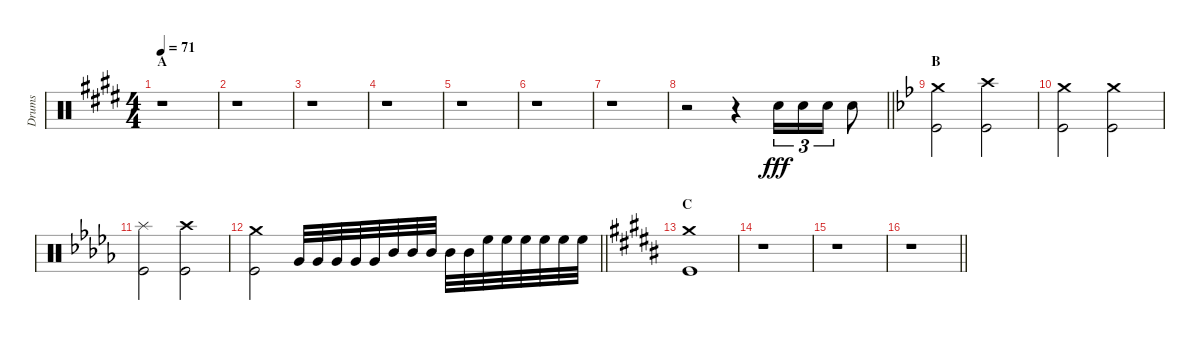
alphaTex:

\track ("Drums" "Drums") {instrument percussion}
\staff {score}
\articulation defaults
\ts (4 4)
\section ("" "A")
\tempo 71
\clef neutral
\ks e
r.1{dy fff} |
r.1 |
r.1 |
r.1 |
r.1 |
r.1 |
r.1 |
\barLineRight lightlight
r.2 r.4 "Snare (hit) 2".16{tu (3 2)} "Snare (hit) 2".16{tu (3 2)} "Snare (hit) 2".16{tu (3 2)} "Snare (hit) 2".8 |
\section ("" "B")
\ks bb
("Crash medium (hit)" "Kick (hit)").2 ("Crash high (hit)" "Kick (hit)").2 |
("Crash medium (hit)" "Kick (hit)").2 ("Crash medium (hit)" "Kick (hit)").2 |
\ks db
("Splash (hit)" "Kick (hit)").2 ("Crash high (hit)" "Kick (hit)").2 |
\barLineRight lightlight
("Crash medium (hit)" "Kick (hit)").2 "Very Low Tom (hit)".32 "Very Low Tom (hit)".32 "Very Low Tom (hit)".32 "Very Low Tom (hit)".32 "Very Low Tom (hit)".32 "Mid Tom (hit)".32 "Mid Tom (hit)".32 "Mid Tom (hit)".32 "Mid Tom (hit)".32 "Mid Tom (hit)".32 "High Floor Tom (hit)".32 "High Floor Tom (hit)".32 "High Floor Tom (hit)".32 "High Floor Tom (hit)".32 "High Floor Tom (hit)".32 "High Floor Tom (hit)".32 |
\section ("" "C")
\ks b
("Crash medium (hit)" "Kick (hit)").1 |
r.1 |
r.1 |
\barLineRight lightlight
r.1
